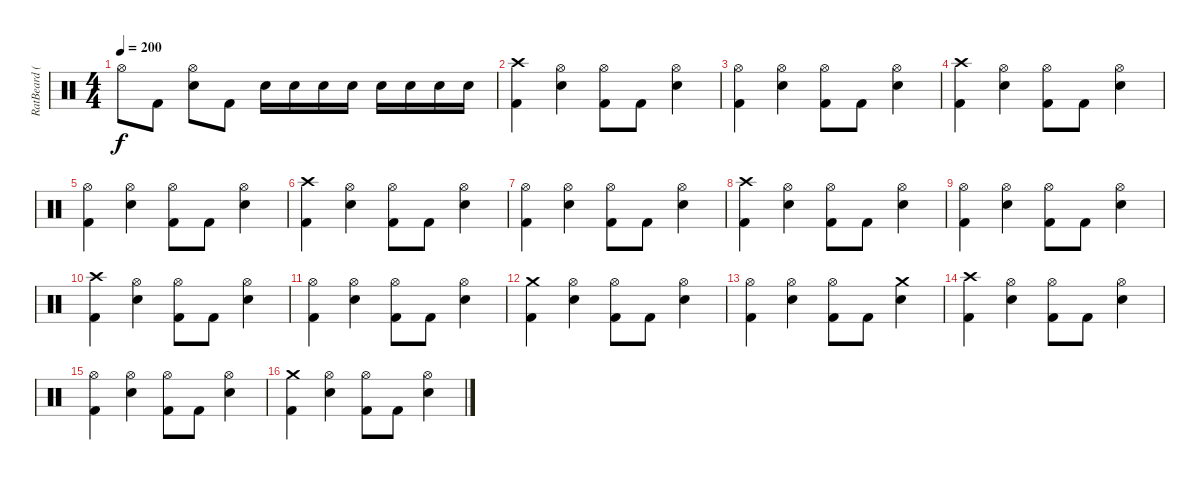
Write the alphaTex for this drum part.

\track ("RatBeard (Drum)" "RatBeard (") {instrument percussion}
\staff {score}
\articulation defaults
\ts (4 4)
\tempo 200
\clef neutral
\ks c "Hi-Hat (open)".8{dy f} "Kick (hit) 2".8
("Hi-Hat (open)" "Electric Snare (hit)").8 "Kick (hit) 2".8 "Electric Snare (hit)".16 "Electric Snare (hit)".16 "Electric Snare (hit)".16 "Electric Snare (hit)".16 "Electric Snare (hit)".16 "Electric Snare (hit)".16 "Electric Snare (hit)".16 "Electric Snare (hit)".16 |
("Crash high (hit)" "Kick (hit) 2").4 ("Hi-Hat (open)" "Electric Snare (hit)").4 ("Hi-Hat (open)" "Kick (hit) 2").8 "Kick (hit) 2".8 ("Hi-Hat (open)" "Electric Snare (hit)").4 |
("Hi-Hat (open)" "Kick (hit) 2").4 ("Hi-Hat (open)" "Electric Snare (hit)").4 ("Hi-Hat (open)" "Kick (hit) 2").8 "Kick (hit) 2".8 ("Hi-Hat (open)" "Electric Snare (hit)").4 |
("Crash high (hit)" "Kick (hit) 2").4 ("Hi-Hat (open)" "Electric Snare (hit)").4 ("Hi-Hat (open)" "Kick (hit) 2").8 "Kick (hit) 2".8 ("Hi-Hat (open)" "Electric Snare (hit)").4 |
("Hi-Hat (open)" "Kick (hit) 2").4 ("Hi-Hat (open)" "Electric Snare (hit)").4 ("Hi-Hat (open)" "Kick (hit) 2").8 "Kick (hit) 2".8 ("Hi-Hat (open)" "Electric Snare (hit)").4 |
("Crash high (hit)" "Kick (hit) 2").4 ("Hi-Hat (open)" "Electric Snare (hit)").4 ("Hi-Hat (open)" "Kick (hit) 2").8 "Kick (hit) 2".8 ("Hi-Hat (open)" "Electric Snare (hit)").4 |
("Hi-Hat (open)" "Kick (hit) 2").4 ("Hi-Hat (open)" "Electric Snare (hit)").4 ("Hi-Hat (open)" "Kick (hit) 2").8 "Kick (hit) 2".8 ("Hi-Hat (open)" "Electric Snare (hit)").4 |
("Crash high (hit)" "Kick (hit) 2").4 ("Hi-Hat (open)" "Electric Snare (hit)").4 ("Hi-Hat (open)" "Kick (hit) 2").8 "Kick (hit) 2".8 ("Hi-Hat (open)" "Electric Snare (hit)").4 |
("Hi-Hat (open)" "Kick (hit) 2").4 ("Hi-Hat (open)" "Electric Snare (hit)").4 ("Hi-Hat (open)" "Kick (hit) 2").8 "Kick (hit) 2".8 ("Hi-Hat (open)" "Electric Snare (hit)").4 |
("Crash high (hit)" "Kick (hit) 2").4 ("Hi-Hat (open)" "Electric Snare (hit)").4 ("Hi-Hat (open)" "Kick (hit) 2").8 "Kick (hit) 2".8 ("Hi-Hat (open)" "Electric Snare (hit)").4 |
("Hi-Hat (open)" "Kick (hit) 2").4 ("Hi-Hat (open)" "Electric Snare (hit)").4 ("Hi-Hat (open)" "Kick (hit) 2").8 "Kick (hit) 2".8 ("Hi-Hat (open)" "Electric Snare (hit)").4 |
("Crash medium (hit)" "Kick (hit) 2").4 ("Hi-Hat (open)" "Electric Snare (hit)").4 ("Hi-Hat (open)" "Kick (hit) 2").8 "Kick (hit) 2".8 ("Hi-Hat (open)" "Electric Snare (hit)").4 |
("Hi-Hat (open)" "Kick (hit) 2").4 ("Hi-Hat (open)" "Electric Snare (hit)").4 ("Hi-Hat (open)" "Kick (hit) 2").8 "Kick (hit) 2".8 ("Crash medium (hit)" "Electric Snare (hit)").4 |
("Crash high (hit)" "Kick (hit) 2").4 ("Hi-Hat (open)" "Electric Snare (hit)").4 ("Hi-Hat (open)" "Kick (hit) 2").8 "Kick (hit) 2".8 ("Hi-Hat (open)" "Electric Snare (hit)").4 |
("Hi-Hat (open)" "Kick (hit) 2").4 ("Hi-Hat (open)" "Electric Snare (hit)").4 ("Hi-Hat (open)" "Kick (hit) 2").8 "Kick (hit) 2".8 ("Hi-Hat (open)" "Electric Snare (hit)").4 |
("Crash medium (hit)" "Kick (hit) 2").4 ("Hi-Hat (open)" "Electric Snare (hit)").4 ("Hi-Hat (open)" "Kick (hit) 2").8 "Kick (hit) 2".8 ("Hi-Hat (open)" "Electric Snare (hit)").4
